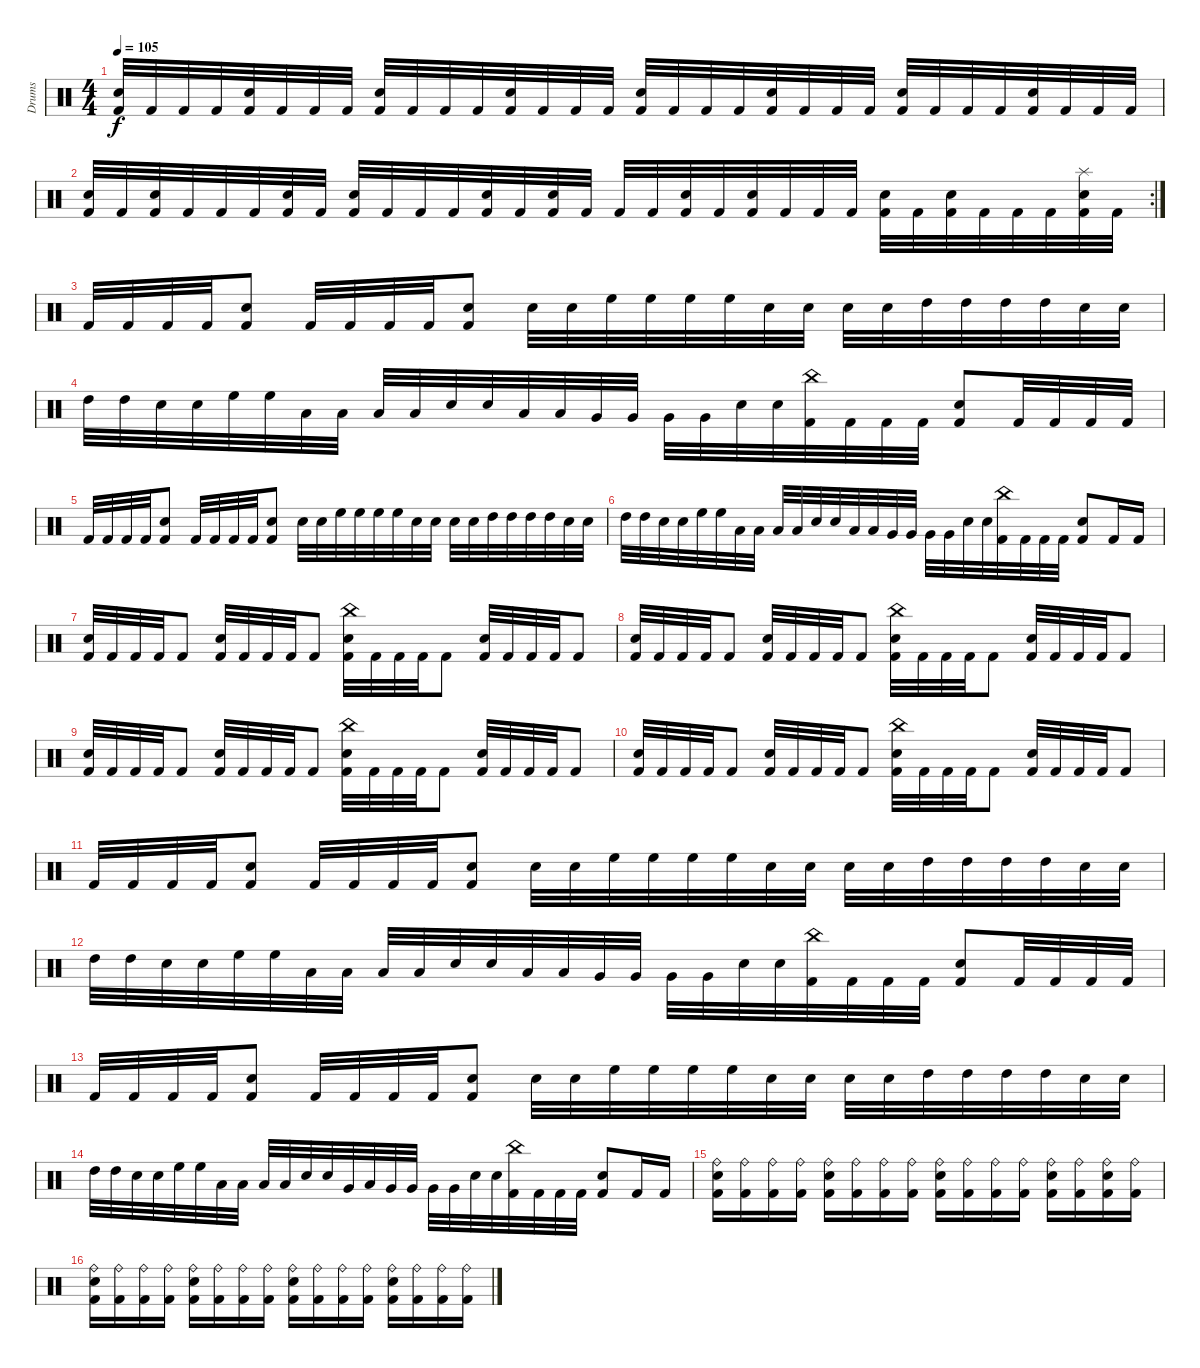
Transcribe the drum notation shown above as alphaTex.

\track ("Drums" "Drums") {instrument percussion}
\staff {score}
\articulation defaults
\ts (4 4)
\tempo 105
\clef neutral
\ks c
("Electric Snare (hit)" "Kick (hit) 2").32{dy f} "Kick (hit) 2".32 "Kick (hit) 2".32 "Kick (hit) 2".32 ("Electric Snare (hit)" "Kick (hit) 2").32 "Kick (hit) 2".32 "Kick (hit) 2".32 "Kick (hit) 2".32 ("Electric Snare (hit)" "Kick (hit) 2").32 "Kick (hit) 2".32 "Kick (hit) 2".32 "Kick (hit) 2".32 ("Electric Snare (hit)" "Kick (hit) 2").32 "Kick (hit) 2".32 "Kick (hit) 2".32 "Kick (hit) 2".32 ("Electric Snare (hit)" "Kick (hit) 2").32 "Kick (hit) 2".32 "Kick (hit) 2".32 "Kick (hit) 2".32 ("Electric Snare (hit)" "Kick (hit) 2").32 "Kick (hit) 2".32 "Kick (hit) 2".32 "Kick (hit) 2".32 ("Electric Snare (hit)" "Kick (hit) 2").32 "Kick (hit) 2".32 "Kick (hit) 2".32 "Kick (hit) 2".32 ("Electric Snare (hit)" "Kick (hit) 2").32 "Kick (hit) 2".32 "Kick (hit) 2".32 "Kick (hit) 2".32 |
\rc 2
("Electric Snare (hit)" "Kick (hit) 2").32 "Kick (hit) 2".32 ("Electric Snare (hit)" "Kick (hit) 2").32 "Kick (hit) 2".32 "Kick (hit) 2".32 "Kick (hit) 2".32 ("Electric Snare (hit)" "Kick (hit) 2").32 "Kick (hit) 2".32 ("Electric Snare (hit)" "Kick (hit) 2").32 "Kick (hit) 2".32 "Kick (hit) 2".32 "Kick (hit) 2".32 ("Electric Snare (hit)" "Kick (hit) 2").32 "Kick (hit) 2".32 ("Electric Snare (hit)" "Kick (hit) 2").32 "Kick (hit) 2".32 "Kick (hit) 2".32 "Kick (hit) 2".32 ("Electric Snare (hit)" "Kick (hit) 2").32 "Kick (hit) 2".32 ("Electric Snare (hit)" "Kick (hit) 2").32 "Kick (hit) 2".32 "Kick (hit) 2".32 "Kick (hit) 2".32 ("Electric Snare (hit)" "Kick (hit) 2").32 "Kick (hit) 2".32 ("Electric Snare (hit)" "Kick (hit) 2").32 "Kick (hit) 2".32 "Kick (hit) 2".32 "Kick (hit) 2".32 ("Splash (hit)" "Electric Snare (hit)" "Kick (hit) 2").32 "Kick (hit) 2".32 |
"Kick (hit) 2".32 "Kick (hit) 2".32 "Kick (hit) 2".32 "Kick (hit) 2".32 ("Electric Snare (hit)" "Kick (hit) 2").8 "Kick (hit) 2".32 "Kick (hit) 2".32 "Kick (hit) 2".32 "Kick (hit) 2".32 ("Electric Snare (hit)" "Kick (hit) 2").8 "Electric Snare (hit)".32 "Electric Snare (hit)".32 "High Floor Tom (hit)".32 "High Floor Tom (hit)".32 "High Floor Tom (hit)".32 "High Floor Tom (hit)".32 "Electric Snare (hit)".32 "Electric Snare (hit)".32 "Electric Snare (hit)".32 "Electric Snare (hit)".32 "High Tom (hit)".32 "High Tom (hit)".32 "High Tom (hit)".32 "High Tom (hit)".32 "Electric Snare (hit)".32 "Electric Snare (hit)".32 |
"High Tom (hit)".32 "High Tom (hit)".32 "Electric Snare (hit)".32 "Electric Snare (hit)".32 "High Floor Tom (hit)".32 "High Floor Tom (hit)".32 "Low Tom (hit)".32 "Low Tom (hit)".32 "Low Tom (hit)".32 "Low Tom (hit)".32 "Electric Snare (hit)".32 "Electric Snare (hit)".32 "Low Tom (hit)".32 "Low Tom (hit)".32 "Very Low Tom (hit)".32 "Very Low Tom (hit)".32 "Very Low Tom (hit)".32 "Very Low Tom (hit)".32 "Electric Snare (hit)".32 "Electric Snare (hit)".32 ("China (hit)" "Kick (hit) 2").32 "Kick (hit) 2".32 "Kick (hit) 2".32 "Kick (hit) 2".32 ("Electric Snare (hit)" "Kick (hit) 2").8 "Kick (hit) 2".32 "Kick (hit) 2".32 "Kick (hit) 2".32 "Kick (hit) 2".32 |
"Kick (hit) 2".32 "Kick (hit) 2".32 "Kick (hit) 2".32 "Kick (hit) 2".32 ("Electric Snare (hit)" "Kick (hit) 2").8 "Kick (hit) 2".32 "Kick (hit) 2".32 "Kick (hit) 2".32 "Kick (hit) 2".32 ("Electric Snare (hit)" "Kick (hit) 2").8 "Electric Snare (hit)".32 "Electric Snare (hit)".32 "High Floor Tom (hit)".32 "High Floor Tom (hit)".32 "High Floor Tom (hit)".32 "High Floor Tom (hit)".32 "Electric Snare (hit)".32 "Electric Snare (hit)".32 "Electric Snare (hit)".32 "Electric Snare (hit)".32 "High Tom (hit)".32 "High Tom (hit)".32 "High Tom (hit)".32 "High Tom (hit)".32 "Electric Snare (hit)".32 "Electric Snare (hit)".32 |
"High Tom (hit)".32 "High Tom (hit)".32 "Electric Snare (hit)".32 "Electric Snare (hit)".32 "High Floor Tom (hit)".32 "High Floor Tom (hit)".32 "Low Tom (hit)".32 "Low Tom (hit)".32 "Low Tom (hit)".32 "Low Tom (hit)".32 "Electric Snare (hit)".32 "Electric Snare (hit)".32 "Low Tom (hit)".32 "Low Tom (hit)".32 "Very Low Tom (hit)".32 "Very Low Tom (hit)".32 "Very Low Tom (hit)".32 "Very Low Tom (hit)".32 "Electric Snare (hit)".32 "Electric Snare (hit)".32 ("China (hit)" "Kick (hit) 2").32 "Kick (hit) 2".32 "Kick (hit) 2".32 "Kick (hit) 2".32 ("Electric Snare (hit)" "Kick (hit) 2").8 "Kick (hit) 2".16 "Kick (hit) 2".16 |
("Electric Snare (hit)" "Kick (hit) 2").32 "Kick (hit) 2".32 "Kick (hit) 2".32 "Kick (hit) 2".32 "Kick (hit) 2".8 ("Electric Snare (hit)" "Kick (hit) 2").32 "Kick (hit) 2".32 "Kick (hit) 2".32 "Kick (hit) 2".32 "Kick (hit) 2".8 ("China (hit)" "Electric Snare (hit)" "Kick (hit) 2").32 "Kick (hit) 2".32 "Kick (hit) 2".32 "Kick (hit) 2".32 "Kick (hit) 2".8 ("Electric Snare (hit)" "Kick (hit) 2").32 "Kick (hit) 2".32 "Kick (hit) 2".32 "Kick (hit) 2".32 "Kick (hit) 2".8 |
("Electric Snare (hit)" "Kick (hit) 2").32 "Kick (hit) 2".32 "Kick (hit) 2".32 "Kick (hit) 2".32 "Kick (hit) 2".8 ("Electric Snare (hit)" "Kick (hit) 2").32 "Kick (hit) 2".32 "Kick (hit) 2".32 "Kick (hit) 2".32 "Kick (hit) 2".8 ("China (hit)" "Electric Snare (hit)" "Kick (hit) 2").32 "Kick (hit) 2".32 "Kick (hit) 2".32 "Kick (hit) 2".32 "Kick (hit) 2".8 ("Electric Snare (hit)" "Kick (hit) 2").32 "Kick (hit) 2".32 "Kick (hit) 2".32 "Kick (hit) 2".32 "Kick (hit) 2".8 |
("Electric Snare (hit)" "Kick (hit) 2").32 "Kick (hit) 2".32 "Kick (hit) 2".32 "Kick (hit) 2".32 "Kick (hit) 2".8 ("Electric Snare (hit)" "Kick (hit) 2").32 "Kick (hit) 2".32 "Kick (hit) 2".32 "Kick (hit) 2".32 "Kick (hit) 2".8 ("China (hit)" "Electric Snare (hit)" "Kick (hit) 2").32 "Kick (hit) 2".32 "Kick (hit) 2".32 "Kick (hit) 2".32 "Kick (hit) 2".8 ("Electric Snare (hit)" "Kick (hit) 2").32 "Kick (hit) 2".32 "Kick (hit) 2".32 "Kick (hit) 2".32 "Kick (hit) 2".8 |
("Electric Snare (hit)" "Kick (hit) 2").32 "Kick (hit) 2".32 "Kick (hit) 2".32 "Kick (hit) 2".32 "Kick (hit) 2".8 ("Electric Snare (hit)" "Kick (hit) 2").32 "Kick (hit) 2".32 "Kick (hit) 2".32 "Kick (hit) 2".32 "Kick (hit) 2".8 ("China (hit)" "Electric Snare (hit)" "Kick (hit) 2").32 "Kick (hit) 2".32 "Kick (hit) 2".32 "Kick (hit) 2".32 "Kick (hit) 2".8 ("Electric Snare (hit)" "Kick (hit) 2").32 "Kick (hit) 2".32 "Kick (hit) 2".32 "Kick (hit) 2".32 "Kick (hit) 2".8 |
"Kick (hit) 2".32 "Kick (hit) 2".32 "Kick (hit) 2".32 "Kick (hit) 2".32 ("Electric Snare (hit)" "Kick (hit) 2").8 "Kick (hit) 2".32 "Kick (hit) 2".32 "Kick (hit) 2".32 "Kick (hit) 2".32 ("Electric Snare (hit)" "Kick (hit) 2").8 "Electric Snare (hit)".32 "Electric Snare (hit)".32 "High Floor Tom (hit)".32 "High Floor Tom (hit)".32 "High Floor Tom (hit)".32 "High Floor Tom (hit)".32 "Electric Snare (hit)".32 "Electric Snare (hit)".32 "Electric Snare (hit)".32 "Electric Snare (hit)".32 "High Tom (hit)".32 "High Tom (hit)".32 "High Tom (hit)".32 "High Tom (hit)".32 "Electric Snare (hit)".32 "Electric Snare (hit)".32 |
"High Tom (hit)".32 "High Tom (hit)".32 "Electric Snare (hit)".32 "Electric Snare (hit)".32 "High Floor Tom (hit)".32 "High Floor Tom (hit)".32 "Low Tom (hit)".32 "Low Tom (hit)".32 "Low Tom (hit)".32 "Low Tom (hit)".32 "Electric Snare (hit)".32 "Electric Snare (hit)".32 "Low Tom (hit)".32 "Low Tom (hit)".32 "Very Low Tom (hit)".32 "Very Low Tom (hit)".32 "Very Low Tom (hit)".32 "Very Low Tom (hit)".32 "Electric Snare (hit)".32 "Electric Snare (hit)".32 ("China (hit)" "Kick (hit) 2").32 "Kick (hit) 2".32 "Kick (hit) 2".32 "Kick (hit) 2".32 ("Electric Snare (hit)" "Kick (hit) 2").8 "Kick (hit) 2".32 "Kick (hit) 2".32 "Kick (hit) 2".32 "Kick (hit) 2".32 |
"Kick (hit) 2".32 "Kick (hit) 2".32 "Kick (hit) 2".32 "Kick (hit) 2".32 ("Electric Snare (hit)" "Kick (hit) 2").8 "Kick (hit) 2".32 "Kick (hit) 2".32 "Kick (hit) 2".32 "Kick (hit) 2".32 ("Electric Snare (hit)" "Kick (hit) 2").8 "Electric Snare (hit)".32 "Electric Snare (hit)".32 "High Floor Tom (hit)".32 "High Floor Tom (hit)".32 "High Floor Tom (hit)".32 "High Floor Tom (hit)".32 "Electric Snare (hit)".32 "Electric Snare (hit)".32 "Electric Snare (hit)".32 "Electric Snare (hit)".32 "High Tom (hit)".32 "High Tom (hit)".32 "High Tom (hit)".32 "High Tom (hit)".32 "Electric Snare (hit)".32 "Electric Snare (hit)".32 |
"High Tom (hit)".32 "High Tom (hit)".32 "Electric Snare (hit)".32 "Electric Snare (hit)".32 "High Floor Tom (hit)".32 "High Floor Tom (hit)".32 "Low Tom (hit)".32 "Low Tom (hit)".32 "Low Tom (hit)".32 "Low Tom (hit)".32 "Electric Snare (hit)".32 "Electric Snare (hit)".32 "Very Low Tom (hit)".32 "Low Tom (hit)".32 "Very Low Tom (hit)".32 "Very Low Tom (hit)".32 "Very Low Tom (hit)".32 "Very Low Tom (hit)".32 "Electric Snare (hit)".32 "Electric Snare (hit)".32 ("China (hit)" "Kick (hit) 2").32 "Kick (hit) 2".32 "Kick (hit) 2".32 "Kick (hit) 2".32 ("Electric Snare (hit)" "Kick (hit) 2").8 "Kick (hit) 2".16 "Kick (hit) 2".16 |
("Ride (bell)" "Electric Snare (hit)" "Kick (hit) 2").16 ("Ride (bell)" "Kick (hit) 2").16 ("Ride (bell)" "Kick (hit) 2").16 ("Ride (bell)" "Kick (hit) 2").16 ("Ride (bell)" "Electric Snare (hit)" "Kick (hit) 2").16 ("Ride (bell)" "Kick (hit) 2").16 ("Ride (bell)" "Kick (hit) 2").16 ("Ride (bell)" "Kick (hit) 2").16 ("Ride (bell)" "Electric Snare (hit)" "Kick (hit) 2").16 ("Ride (bell)" "Kick (hit) 2").16 ("Ride (bell)" "Kick (hit) 2").16 ("Ride (bell)" "Kick (hit) 2").16 ("Ride (bell)" "Electric Snare (hit)" "Kick (hit) 2").16 ("Ride (bell)" "Kick (hit) 2").16 ("Ride (bell)" "Electric Snare (hit)" "Kick (hit) 2").16 ("Ride (bell)" "Kick (hit) 2").16 |
("Ride (bell)" "Electric Snare (hit)" "Kick (hit) 2").16 ("Ride (bell)" "Kick (hit) 2").16 ("Ride (bell)" "Kick (hit) 2").16 ("Ride (bell)" "Kick (hit) 2").16 ("Ride (bell)" "Electric Snare (hit)" "Kick (hit) 2").16 ("Ride (bell)" "Kick (hit) 2").16 ("Ride (bell)" "Kick (hit) 2").16 ("Ride (bell)" "Kick (hit) 2").16 ("Ride (bell)" "Electric Snare (hit)" "Kick (hit) 2").16 ("Ride (bell)" "Kick (hit) 2").16 ("Ride (bell)" "Kick (hit) 2").16 ("Ride (bell)" "Kick (hit) 2").16 ("Ride (bell)" "Electric Snare (hit)" "Kick (hit) 2").16 ("Ride (bell)" "Kick (hit) 2").16 ("Ride (bell)" "Kick (hit) 2").16 ("Ride (bell)" "Kick (hit) 2").16
